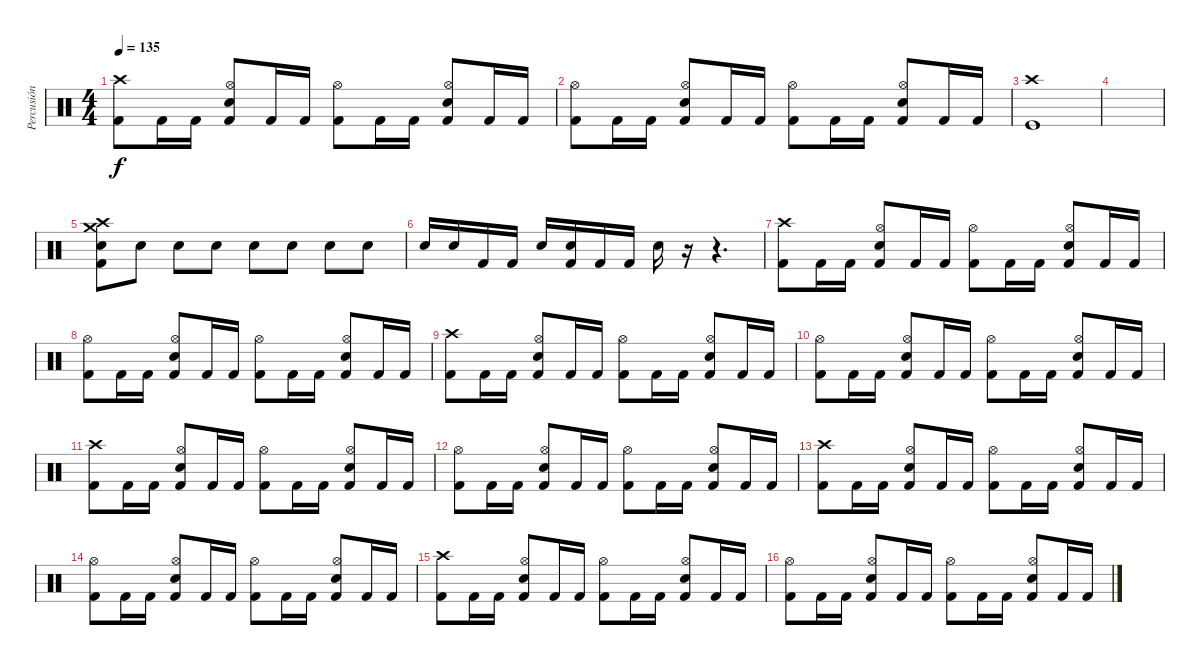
\track ("Percusión" "Percusión") {instrument percussion}
\staff {score}
\articulation defaults
\ts (4 4)
\tempo 135
\clef neutral
\ks c
("Kick (hit) 2" "Crash high (hit)").8{dy f} "Kick (hit) 2".16 "Kick (hit) 2".16 ("Kick (hit) 2" "Hi-Hat (open)" "Snare (hit) 2").8 "Kick (hit) 2".16 "Kick (hit) 2".16 ("Kick (hit) 2" "Hi-Hat (open)").8 "Kick (hit) 2".16 "Kick (hit) 2".16 ("Kick (hit) 2" "Hi-Hat (open)" "Snare (hit) 2").8 "Kick (hit) 2".16 "Kick (hit) 2".16 |
("Kick (hit) 2" "Hi-Hat (open)").8 "Kick (hit) 2".16 "Kick (hit) 2".16 ("Kick (hit) 2" "Hi-Hat (open)" "Snare (hit) 2").8 "Kick (hit) 2".16 "Kick (hit) 2".16 ("Kick (hit) 2" "Hi-Hat (open)").8 "Kick (hit) 2".16 "Kick (hit) 2".16 ("Kick (hit) 2" "Hi-Hat (open)" "Snare (hit) 2").8 "Kick (hit) 2".16 "Kick (hit) 2".16 |
("Crash high (hit)" "Kick (hit)").1 |
|
("Snare (hit) 2" "Kick (hit) 2" "Crash high (hit)" "Crash medium (hit)").8 "Snare (hit) 2".8 "Snare (hit) 2".8 "Snare (hit) 2".8 "Snare (hit) 2".8 "Snare (hit) 2".8 "Snare (hit) 2".8 "Snare (hit) 2".8 |
"Snare (hit) 2".16 "Snare (hit) 2".16 "Kick (hit) 2".16 "Kick (hit) 2".16 "Snare (hit) 2".16 ("Kick (hit) 2" "Snare (hit) 2").16 "Kick (hit) 2".16 "Kick (hit) 2".16 "Snare (hit) 2".16 r.16 r.4{d} |
("Kick (hit) 2" "Crash high (hit)").8 "Kick (hit) 2".16 "Kick (hit) 2".16 ("Kick (hit) 2" "Hi-Hat (open)" "Snare (hit) 2").8 "Kick (hit) 2".16 "Kick (hit) 2".16 ("Kick (hit) 2" "Hi-Hat (open)").8 "Kick (hit) 2".16 "Kick (hit) 2".16 ("Kick (hit) 2" "Hi-Hat (open)" "Snare (hit) 2").8 "Kick (hit) 2".16 "Kick (hit) 2".16 |
("Kick (hit) 2" "Hi-Hat (open)").8 "Kick (hit) 2".16 "Kick (hit) 2".16 ("Kick (hit) 2" "Hi-Hat (open)" "Snare (hit) 2").8 "Kick (hit) 2".16 "Kick (hit) 2".16 ("Kick (hit) 2" "Hi-Hat (open)").8 "Kick (hit) 2".16 "Kick (hit) 2".16 ("Kick (hit) 2" "Hi-Hat (open)" "Snare (hit) 2").8 "Kick (hit) 2".16 "Kick (hit) 2".16 |
("Kick (hit) 2" "Crash high (hit)").8 "Kick (hit) 2".16 "Kick (hit) 2".16 ("Kick (hit) 2" "Hi-Hat (open)" "Snare (hit) 2").8 "Kick (hit) 2".16 "Kick (hit) 2".16 ("Kick (hit) 2" "Hi-Hat (open)").8 "Kick (hit) 2".16 "Kick (hit) 2".16 ("Kick (hit) 2" "Hi-Hat (open)" "Snare (hit) 2").8 "Kick (hit) 2".16 "Kick (hit) 2".16 |
("Kick (hit) 2" "Hi-Hat (open)").8 "Kick (hit) 2".16 "Kick (hit) 2".16 ("Kick (hit) 2" "Hi-Hat (open)" "Snare (hit) 2").8 "Kick (hit) 2".16 "Kick (hit) 2".16 ("Kick (hit) 2" "Hi-Hat (open)").8 "Kick (hit) 2".16 "Kick (hit) 2".16 ("Kick (hit) 2" "Hi-Hat (open)" "Snare (hit) 2").8 "Kick (hit) 2".16 "Kick (hit) 2".16 |
("Kick (hit) 2" "Crash high (hit)").8 "Kick (hit) 2".16 "Kick (hit) 2".16 ("Kick (hit) 2" "Hi-Hat (open)" "Snare (hit) 2").8 "Kick (hit) 2".16 "Kick (hit) 2".16 ("Kick (hit) 2" "Hi-Hat (open)").8 "Kick (hit) 2".16 "Kick (hit) 2".16 ("Kick (hit) 2" "Hi-Hat (open)" "Snare (hit) 2").8 "Kick (hit) 2".16 "Kick (hit) 2".16 |
("Kick (hit) 2" "Hi-Hat (open)").8 "Kick (hit) 2".16 "Kick (hit) 2".16 ("Kick (hit) 2" "Hi-Hat (open)" "Snare (hit) 2").8 "Kick (hit) 2".16 "Kick (hit) 2".16 ("Kick (hit) 2" "Hi-Hat (open)").8 "Kick (hit) 2".16 "Kick (hit) 2".16 ("Kick (hit) 2" "Hi-Hat (open)" "Snare (hit) 2").8 "Kick (hit) 2".16 "Kick (hit) 2".16 |
("Kick (hit) 2" "Crash high (hit)").8 "Kick (hit) 2".16 "Kick (hit) 2".16 ("Kick (hit) 2" "Hi-Hat (open)" "Snare (hit) 2").8 "Kick (hit) 2".16 "Kick (hit) 2".16 ("Kick (hit) 2" "Hi-Hat (open)").8 "Kick (hit) 2".16 "Kick (hit) 2".16 ("Kick (hit) 2" "Hi-Hat (open)" "Snare (hit) 2").8 "Kick (hit) 2".16 "Kick (hit) 2".16 |
("Kick (hit) 2" "Hi-Hat (open)").8 "Kick (hit) 2".16 "Kick (hit) 2".16 ("Kick (hit) 2" "Hi-Hat (open)" "Snare (hit) 2").8 "Kick (hit) 2".16 "Kick (hit) 2".16 ("Kick (hit) 2" "Hi-Hat (open)").8 "Kick (hit) 2".16 "Kick (hit) 2".16 ("Kick (hit) 2" "Hi-Hat (open)" "Snare (hit) 2").8 "Kick (hit) 2".16 "Kick (hit) 2".16 |
("Kick (hit) 2" "Crash high (hit)").8 "Kick (hit) 2".16 "Kick (hit) 2".16 ("Kick (hit) 2" "Hi-Hat (open)" "Snare (hit) 2").8 "Kick (hit) 2".16 "Kick (hit) 2".16 ("Kick (hit) 2" "Hi-Hat (open)").8 "Kick (hit) 2".16 "Kick (hit) 2".16 ("Kick (hit) 2" "Hi-Hat (open)" "Snare (hit) 2").8 "Kick (hit) 2".16 "Kick (hit) 2".16 |
("Kick (hit) 2" "Hi-Hat (open)").8 "Kick (hit) 2".16 "Kick (hit) 2".16 ("Kick (hit) 2" "Hi-Hat (open)" "Snare (hit) 2").8 "Kick (hit) 2".16 "Kick (hit) 2".16 ("Kick (hit) 2" "Hi-Hat (open)").8 "Kick (hit) 2".16 "Kick (hit) 2".16 ("Kick (hit) 2" "Hi-Hat (open)" "Snare (hit) 2").8 "Kick (hit) 2".16 "Kick (hit) 2".16
